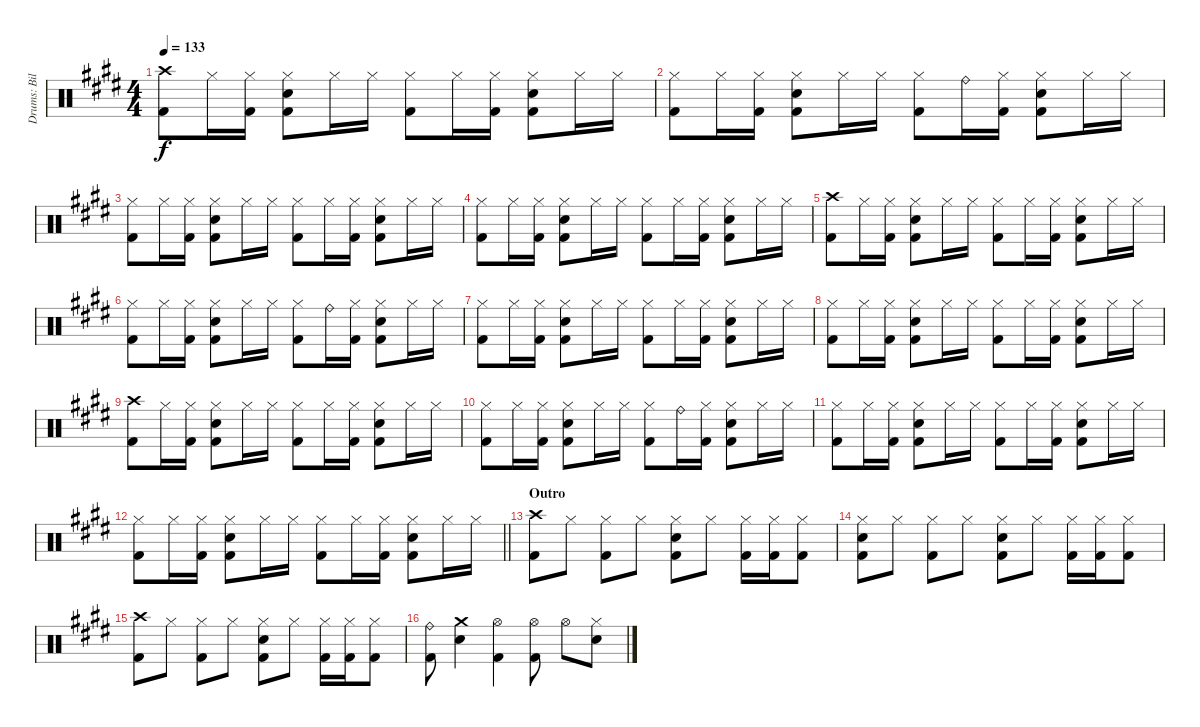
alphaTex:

\track ("Drums: Bill" "Drums: Bil") {instrument percussion}
\staff {score}
\articulation defaults
\ts (4 4)
\tempo 133
\clef neutral
\ks e
("Crash high (hit)" "Kick (hit) 2").8{dy f} "Hi-Hat (closed)".16 ("Hi-Hat (closed)" "Kick (hit) 2").16 ("Hi-Hat (closed)" "Snare (hit) 2" "Kick (hit) 2").8 "Hi-Hat (closed)".16 "Hi-Hat (closed)".16 ("Hi-Hat (closed)" "Kick (hit) 2").8 "Hi-Hat (closed)".16 ("Hi-Hat (closed)" "Kick (hit) 2").16 ("Hi-Hat (closed)" "Snare (hit) 2" "Kick (hit) 2").8 "Hi-Hat (closed)".16 "Hi-Hat (closed)".16 |
("Hi-Hat (closed)" "Kick (hit) 2").8 "Hi-Hat (closed)".16 ("Hi-Hat (closed)" "Kick (hit) 2").16 ("Hi-Hat (closed)" "Snare (hit) 2" "Kick (hit) 2").8 "Hi-Hat (closed)".16 "Hi-Hat (closed)".16 ("Hi-Hat (closed)" "Kick (hit) 2").8 "Ride (bell)".16 ("Hi-Hat (closed)" "Kick (hit) 2").16 ("Hi-Hat (closed)" "Snare (hit) 2" "Kick (hit) 2").8 "Hi-Hat (closed)".16 "Hi-Hat (closed)".16 |
("Hi-Hat (closed)" "Kick (hit) 2").8 "Hi-Hat (closed)".16 ("Hi-Hat (closed)" "Kick (hit) 2").16 ("Hi-Hat (closed)" "Snare (hit) 2" "Kick (hit) 2").8 "Hi-Hat (closed)".16 "Hi-Hat (closed)".16 ("Hi-Hat (closed)" "Kick (hit) 2").8 "Hi-Hat (closed)".16 ("Hi-Hat (closed)" "Kick (hit) 2").16 ("Hi-Hat (closed)" "Snare (hit) 2" "Kick (hit) 2").8 "Hi-Hat (closed)".16 "Hi-Hat (closed)".16 |
("Hi-Hat (closed)" "Kick (hit) 2").8 "Hi-Hat (closed)".16 ("Hi-Hat (closed)" "Kick (hit) 2").16 ("Hi-Hat (closed)" "Snare (hit) 2" "Kick (hit) 2").8 "Hi-Hat (closed)".16 "Hi-Hat (closed)".16 ("Hi-Hat (closed)" "Kick (hit) 2").8 "Hi-Hat (closed)".16 ("Hi-Hat (closed)" "Kick (hit) 2").16 ("Hi-Hat (closed)" "Snare (hit) 2" "Kick (hit) 2").8 "Hi-Hat (closed)".16 "Hi-Hat (closed)".16 |
("Crash high (hit)" "Kick (hit) 2").8 "Hi-Hat (closed)".16 ("Hi-Hat (closed)" "Kick (hit) 2").16 ("Hi-Hat (closed)" "Snare (hit) 2" "Kick (hit) 2").8 "Hi-Hat (closed)".16 "Hi-Hat (closed)".16 ("Hi-Hat (closed)" "Kick (hit) 2").8 "Hi-Hat (closed)".16 ("Hi-Hat (closed)" "Kick (hit) 2").16 ("Hi-Hat (closed)" "Snare (hit) 2" "Kick (hit) 2").8 "Hi-Hat (closed)".16 "Hi-Hat (closed)".16 |
("Hi-Hat (closed)" "Kick (hit) 2").8 "Hi-Hat (closed)".16 ("Hi-Hat (closed)" "Kick (hit) 2").16 ("Hi-Hat (closed)" "Snare (hit) 2" "Kick (hit) 2").8 "Hi-Hat (closed)".16 "Hi-Hat (closed)".16 ("Hi-Hat (closed)" "Kick (hit) 2").8 "Ride (bell)".16 ("Hi-Hat (closed)" "Kick (hit) 2").16 ("Hi-Hat (closed)" "Snare (hit) 2" "Kick (hit) 2").8 "Hi-Hat (closed)".16 "Hi-Hat (closed)".16 |
("Hi-Hat (closed)" "Kick (hit) 2").8 "Hi-Hat (closed)".16 ("Hi-Hat (closed)" "Kick (hit) 2").16 ("Hi-Hat (closed)" "Snare (hit) 2" "Kick (hit) 2").8 "Hi-Hat (closed)".16 "Hi-Hat (closed)".16 ("Hi-Hat (closed)" "Kick (hit) 2").8 "Hi-Hat (closed)".16 ("Hi-Hat (closed)" "Kick (hit) 2").16 ("Hi-Hat (closed)" "Snare (hit) 2" "Kick (hit) 2").8 "Hi-Hat (closed)".16 "Hi-Hat (closed)".16 |
("Hi-Hat (closed)" "Kick (hit) 2").8 "Hi-Hat (closed)".16 ("Hi-Hat (closed)" "Kick (hit) 2").16 ("Hi-Hat (closed)" "Snare (hit) 2" "Kick (hit) 2").8 "Hi-Hat (closed)".16 "Hi-Hat (closed)".16 ("Hi-Hat (closed)" "Kick (hit) 2").8 "Hi-Hat (closed)".16 ("Hi-Hat (closed)" "Kick (hit) 2").16 ("Hi-Hat (closed)" "Snare (hit) 2" "Kick (hit) 2").8 "Hi-Hat (closed)".16 "Hi-Hat (closed)".16 |
("Crash high (hit)" "Kick (hit) 2").8 "Hi-Hat (closed)".16 ("Hi-Hat (closed)" "Kick (hit) 2").16 ("Hi-Hat (closed)" "Snare (hit) 2" "Kick (hit) 2").8 "Hi-Hat (closed)".16 "Hi-Hat (closed)".16 ("Hi-Hat (closed)" "Kick (hit) 2").8 "Hi-Hat (closed)".16 ("Hi-Hat (closed)" "Kick (hit) 2").16 ("Hi-Hat (closed)" "Snare (hit) 2" "Kick (hit) 2").8 "Hi-Hat (closed)".16 "Hi-Hat (closed)".16 |
("Hi-Hat (closed)" "Kick (hit) 2").8 "Hi-Hat (closed)".16 ("Hi-Hat (closed)" "Kick (hit) 2").16 ("Hi-Hat (closed)" "Snare (hit) 2" "Kick (hit) 2").8 "Hi-Hat (closed)".16 "Hi-Hat (closed)".16 ("Hi-Hat (closed)" "Kick (hit) 2").8 "Ride (bell)".16 ("Hi-Hat (closed)" "Kick (hit) 2").16 ("Hi-Hat (closed)" "Snare (hit) 2" "Kick (hit) 2").8 "Hi-Hat (closed)".16 "Hi-Hat (closed)".16 |
("Hi-Hat (closed)" "Kick (hit) 2").8 "Hi-Hat (closed)".16 ("Hi-Hat (closed)" "Kick (hit) 2").16 ("Hi-Hat (closed)" "Snare (hit) 2" "Kick (hit) 2").8 "Hi-Hat (closed)".16 "Hi-Hat (closed)".16 ("Hi-Hat (closed)" "Kick (hit) 2").8 "Hi-Hat (closed)".16 ("Hi-Hat (closed)" "Kick (hit) 2").16 ("Hi-Hat (closed)" "Snare (hit) 2" "Kick (hit) 2").8 "Hi-Hat (closed)".16 "Hi-Hat (closed)".16 |
\barLineRight lightlight
("Hi-Hat (closed)" "Kick (hit) 2").8 "Hi-Hat (closed)".16 ("Hi-Hat (closed)" "Kick (hit) 2").16 ("Hi-Hat (closed)" "Snare (hit) 2" "Kick (hit) 2").8 "Hi-Hat (closed)".16 "Hi-Hat (closed)".16 ("Hi-Hat (closed)" "Kick (hit) 2").8 "Hi-Hat (closed)".16 ("Hi-Hat (closed)" "Kick (hit) 2").16 ("Hi-Hat (closed)" "Snare (hit) 2" "Kick (hit) 2").8 "Hi-Hat (closed)".16 "Hi-Hat (closed)".16 |
\section ("" "Outro")
("Crash high (hit)" "Kick (hit) 2").8 "Hi-Hat (closed)".8 ("Hi-Hat (closed)" "Kick (hit) 2").8 "Hi-Hat (closed)".8 ("Hi-Hat (closed)" "Snare (hit) 2" "Kick (hit) 2").8 "Hi-Hat (closed)".8 ("Hi-Hat (closed)" "Kick (hit) 2").16 ("Hi-Hat (closed)" "Kick (hit) 2").16 ("Hi-Hat (closed)" "Kick (hit) 2").8 |
("Hi-Hat (closed)" "Snare (hit) 2" "Kick (hit) 2").8 "Hi-Hat (closed)".8 ("Hi-Hat (closed)" "Kick (hit) 2").8 "Hi-Hat (closed)".8 ("Hi-Hat (closed)" "Snare (hit) 2" "Kick (hit) 2").8 "Hi-Hat (closed)".8 ("Hi-Hat (closed)" "Kick (hit) 2").16 ("Hi-Hat (closed)" "Kick (hit) 2").16 ("Hi-Hat (closed)" "Kick (hit) 2").8 |
("Crash high (hit)" "Kick (hit) 2").8 "Hi-Hat (closed)".8 ("Hi-Hat (closed)" "Kick (hit) 2").8 "Hi-Hat (closed)".8 ("Hi-Hat (closed)" "Snare (hit) 2" "Kick (hit) 2").8 "Hi-Hat (closed)".8 ("Hi-Hat (closed)" "Kick (hit) 2").16 ("Hi-Hat (closed)" "Kick (hit) 2").16 ("Hi-Hat (closed)" "Kick (hit) 2").8 |
("Ride (bell)" "Kick (hit) 2").8 ("Crash medium (hit)" "Electric Snare (hit)").4 ("Hi-Hat (open)" "Kick (hit) 2").4 ("Hi-Hat (open)" "Kick (hit) 2").8 "Hi-Hat (open)".8 ("Hi-Hat (closed)" "Electric Snare (hit)").8
